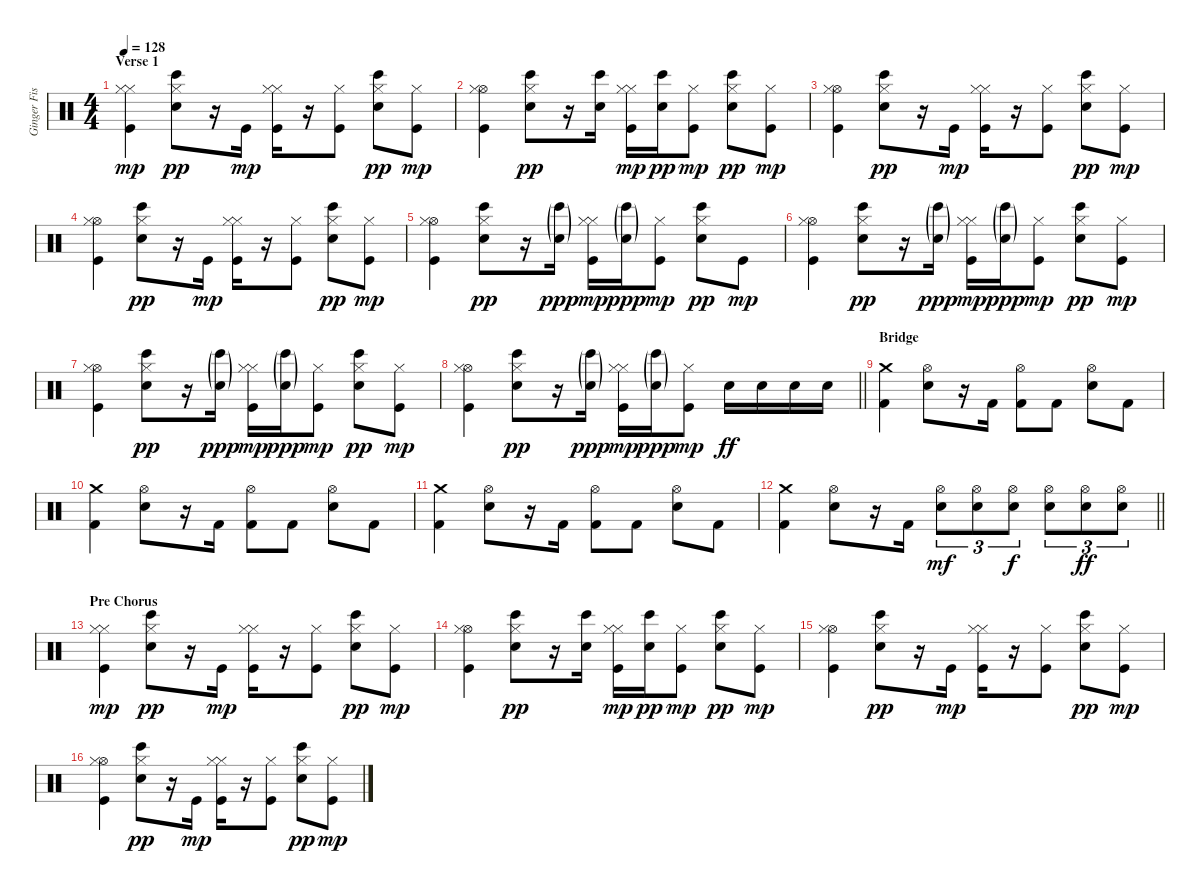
\track ("Ginger Fish" "Ginger Fis") {instrument percussion}
\staff {score}
\articulation defaults
\ts (4 4)
\section ("" "Verse 1")
\tempo 128
\clef neutral
\ks c
("Hi-Hat (closed)" "Hi-Hat (closed)" "Kick (hit)").4{dy mp} ("Hi-Hat (closed)" "Bongo High (hit)" "Electric Snare (hit)").8{dy pp} r.16 "Kick (hit)".16{dy mp} ("Hi-Hat (closed)" "Hi-Hat (closed)" "Kick (hit)").16 r.16 ("Hi-Hat (closed)" "Kick (hit)").8 ("Hi-Hat (closed)" "Bongo High (hit)" "Electric Snare (hit)").8{dy pp} ("Hi-Hat (closed)" "Kick (hit)").8{dy mp} |
("Hi-Hat (open)" "Hi-Hat (closed)" "Kick (hit)").4 ("Hi-Hat (closed)" "Bongo High (hit)" "Electric Snare (hit)").8{dy pp} r.16 ("Bongo High (hit)" "Electric Snare (hit)").16 ("Hi-Hat (closed)" "Hi-Hat (closed)" "Kick (hit)").16{dy mp} ("Bongo High (hit)" "Electric Snare (hit)").16{dy pp} ("Hi-Hat (closed)" "Kick (hit)").8{dy mp} ("Hi-Hat (closed)" "Bongo High (hit)" "Electric Snare (hit)").8{dy pp} ("Hi-Hat (closed)" "Kick (hit)").8{dy mp} |
("Hi-Hat (open)" "Hi-Hat (closed)" "Kick (hit)").4 ("Hi-Hat (closed)" "Bongo High (hit)" "Electric Snare (hit)").8{dy pp} r.16 "Kick (hit)".16{dy mp} ("Hi-Hat (closed)" "Hi-Hat (closed)" "Kick (hit)").16 r.16 ("Hi-Hat (closed)" "Kick (hit)").8 ("Hi-Hat (closed)" "Bongo High (hit)" "Electric Snare (hit)").8{dy pp} ("Hi-Hat (closed)" "Kick (hit)").8{dy mp} |
("Hi-Hat (open)" "Hi-Hat (closed)" "Kick (hit)").4 ("Hi-Hat (closed)" "Bongo High (hit)" "Electric Snare (hit)").8{dy pp} r.16 "Kick (hit)".16{dy mp} ("Hi-Hat (closed)" "Hi-Hat (closed)" "Kick (hit)").16 r.16 ("Hi-Hat (closed)" "Kick (hit)").8 ("Hi-Hat (closed)" "Bongo High (hit)" "Electric Snare (hit)").8{dy pp} ("Hi-Hat (closed)" "Kick (hit)").8{dy mp} |
("Hi-Hat (open)" "Hi-Hat (closed)" "Kick (hit)").4 ("Hi-Hat (closed)" "Bongo High (hit)" "Electric Snare (hit)").8{dy pp} r.16 ("Bongo High (hit)"{g} "Electric Snare (hit)"{g}).16{dy ppp} ("Hi-Hat (closed)" "Hi-Hat (closed)" "Kick (hit)").16{dy mp} ("Bongo High (hit)"{g} "Electric Snare (hit)"{g}).16{dy ppp} ("Hi-Hat (closed)" "Kick (hit)").8{dy mp} ("Hi-Hat (closed)" "Bongo High (hit)" "Electric Snare (hit)").8{dy pp} "Kick (hit)".8{dy mp} |
("Hi-Hat (open)" "Hi-Hat (closed)" "Kick (hit)").4 ("Hi-Hat (closed)" "Bongo High (hit)" "Electric Snare (hit)").8{dy pp} r.16 ("Bongo High (hit)"{g} "Electric Snare (hit)"{g}).16{dy ppp} ("Hi-Hat (closed)" "Hi-Hat (closed)" "Kick (hit)").16{dy mp} ("Bongo High (hit)"{g} "Electric Snare (hit)"{g}).16{dy ppp} ("Hi-Hat (closed)" "Kick (hit)").8{dy mp} ("Hi-Hat (closed)" "Bongo High (hit)" "Electric Snare (hit)").8{dy pp} ("Hi-Hat (closed)" "Kick (hit)").8{dy mp} |
("Hi-Hat (open)" "Hi-Hat (closed)" "Kick (hit)").4 ("Hi-Hat (closed)" "Bongo High (hit)" "Electric Snare (hit)").8{dy pp} r.16 ("Bongo High (hit)"{g} "Electric Snare (hit)"{g}).16{dy ppp} ("Hi-Hat (closed)" "Hi-Hat (closed)" "Kick (hit)").16{dy mp} ("Bongo High (hit)"{g} "Electric Snare (hit)"{g}).16{dy ppp} ("Hi-Hat (closed)" "Kick (hit)").8{dy mp} ("Hi-Hat (closed)" "Bongo High (hit)" "Electric Snare (hit)").8{dy pp} ("Hi-Hat (closed)" "Kick (hit)").8{dy mp} |
\barLineRight lightlight
("Hi-Hat (open)" "Hi-Hat (closed)" "Kick (hit)").4 ("Hi-Hat (closed)" "Bongo High (hit)" "Electric Snare (hit)").8{dy pp} r.16 ("Bongo High (hit)"{g} "Electric Snare (hit)"{g}).16{dy ppp} ("Hi-Hat (closed)" "Hi-Hat (closed)" "Kick (hit)").16{dy mp} ("Bongo High (hit)"{g} "Electric Snare (hit)"{g}).16{dy ppp} ("Hi-Hat (closed)" "Kick (hit)").8{dy mp} "Electric Snare (hit)".16{dy ff} "Electric Snare (hit)".16 "Electric Snare (hit)".16 "Electric Snare (hit)".16 |
\section ("" "Bridge")
("Crash medium (hit)" "Kick (hit) 2").4 ("Hi-Hat (open)" "Electric Snare (hit)").8 r.16 "Kick (hit) 2".16 ("Hi-Hat (open)" "Kick (hit) 2").8 "Kick (hit) 2".8 ("Hi-Hat (open)" "Electric Snare (hit)").8 "Kick (hit) 2".8 |
("Crash medium (hit)" "Kick (hit) 2").4 ("Hi-Hat (open)" "Electric Snare (hit)").8 r.16 "Kick (hit) 2".16 ("Hi-Hat (open)" "Kick (hit) 2").8 "Kick (hit) 2".8 ("Hi-Hat (open)" "Electric Snare (hit)").8 "Kick (hit) 2".8 |
("Crash medium (hit)" "Kick (hit) 2").4 ("Hi-Hat (open)" "Electric Snare (hit)").8 r.16 "Kick (hit) 2".16 ("Hi-Hat (open)" "Kick (hit) 2").8 "Kick (hit) 2".8 ("Hi-Hat (open)" "Electric Snare (hit)").8 "Kick (hit) 2".8 |
\barLineRight lightlight
("Crash medium (hit)" "Kick (hit) 2").4 ("Hi-Hat (open)" "Electric Snare (hit)").8 r.16 "Kick (hit) 2".16 ("Hi-Hat (open)" "Electric Snare (hit)").8{tu (3 2) dy mf} ("Hi-Hat (open)" "Electric Snare (hit)").8{tu (3 2)} ("Hi-Hat (open)" "Electric Snare (hit)").8{tu (3 2) dy f} ("Hi-Hat (open)" "Electric Snare (hit)").8{tu (3 2)} ("Hi-Hat (open)" "Electric Snare (hit)").8{tu (3 2) dy ff} ("Hi-Hat (open)" "Electric Snare (hit)").8{tu (3 2)} |
\section ("" "Pre Chorus")
("Hi-Hat (closed)" "Hi-Hat (closed)" "Kick (hit)").4{dy mp} ("Hi-Hat (closed)" "Bongo High (hit)" "Electric Snare (hit)").8{dy pp} r.16 "Kick (hit)".16{dy mp} ("Hi-Hat (closed)" "Hi-Hat (closed)" "Kick (hit)").16 r.16 ("Hi-Hat (closed)" "Kick (hit)").8 ("Hi-Hat (closed)" "Bongo High (hit)" "Electric Snare (hit)").8{dy pp} ("Hi-Hat (closed)" "Kick (hit)").8{dy mp} |
("Hi-Hat (open)" "Hi-Hat (closed)" "Kick (hit)").4 ("Hi-Hat (closed)" "Bongo High (hit)" "Electric Snare (hit)").8{dy pp} r.16 ("Bongo High (hit)" "Electric Snare (hit)").16 ("Hi-Hat (closed)" "Hi-Hat (closed)" "Kick (hit)").16{dy mp} ("Bongo High (hit)" "Electric Snare (hit)").16{dy pp} ("Hi-Hat (closed)" "Kick (hit)").8{dy mp} ("Hi-Hat (closed)" "Bongo High (hit)" "Electric Snare (hit)").8{dy pp} ("Hi-Hat (closed)" "Kick (hit)").8{dy mp} |
("Hi-Hat (open)" "Hi-Hat (closed)" "Kick (hit)").4 ("Hi-Hat (closed)" "Bongo High (hit)" "Electric Snare (hit)").8{dy pp} r.16 "Kick (hit)".16{dy mp} ("Hi-Hat (closed)" "Hi-Hat (closed)" "Kick (hit)").16 r.16 ("Hi-Hat (closed)" "Kick (hit)").8 ("Hi-Hat (closed)" "Bongo High (hit)" "Electric Snare (hit)").8{dy pp} ("Hi-Hat (closed)" "Kick (hit)").8{dy mp} |
("Hi-Hat (open)" "Hi-Hat (closed)" "Kick (hit)").4 ("Hi-Hat (closed)" "Bongo High (hit)" "Electric Snare (hit)").8{dy pp} r.16 "Kick (hit)".16{dy mp} ("Hi-Hat (closed)" "Hi-Hat (closed)" "Kick (hit)").16 r.16 ("Hi-Hat (closed)" "Kick (hit)").8 ("Hi-Hat (closed)" "Bongo High (hit)" "Electric Snare (hit)").8{dy pp} ("Hi-Hat (closed)" "Kick (hit)").8{dy mp}
